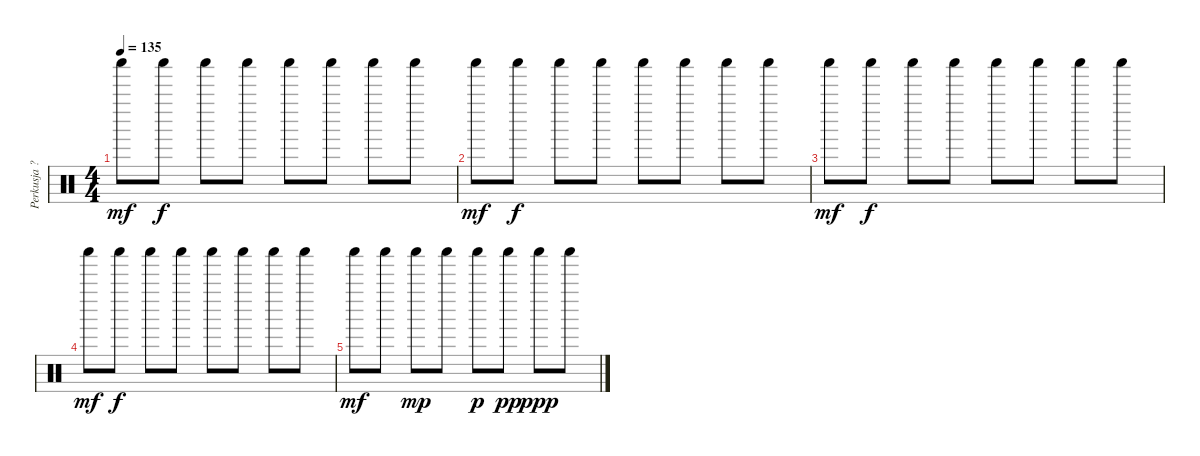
\track ("Perkusja ?" "Perkusja ?") {instrument percussion}
\staff {score}
\articulation defaults
\ts (4 4)
\tempo 135
\clef neutral
\ks c "Shaker (hit)".8{dy mf} "Shaker (hit)".8{dy f} "Shaker (hit)".8 "Shaker (hit)".8 "Shaker (hit)".8 "Shaker (hit)".8 "Shaker (hit)".8 "Shaker (hit)".8
|
"Shaker (hit)".8{dy mf} "Shaker (hit)".8{dy f} "Shaker (hit)".8 "Shaker (hit)".8 "Shaker (hit)".8 "Shaker (hit)".8 "Shaker (hit)".8 "Shaker (hit)".8 |
"Shaker (hit)".8{dy mf} "Shaker (hit)".8{dy f} "Shaker (hit)".8 "Shaker (hit)".8 "Shaker (hit)".8 "Shaker (hit)".8 "Shaker (hit)".8 "Shaker (hit)".8 |
"Shaker (hit)".8{dy mf} "Shaker (hit)".8{dy f} "Shaker (hit)".8 "Shaker (hit)".8 "Shaker (hit)".8 "Shaker (hit)".8 "Shaker (hit)".8 "Shaker (hit)".8 |
"Shaker (hit)".8{dy mf} "Shaker (hit)".8 "Shaker (hit)".8{dy mp} "Shaker (hit)".8 "Shaker (hit)".8{dy p} "Shaker (hit)".8{dy pp} "Shaker (hit)".8{dy ppp} "Shaker (hit)".8
